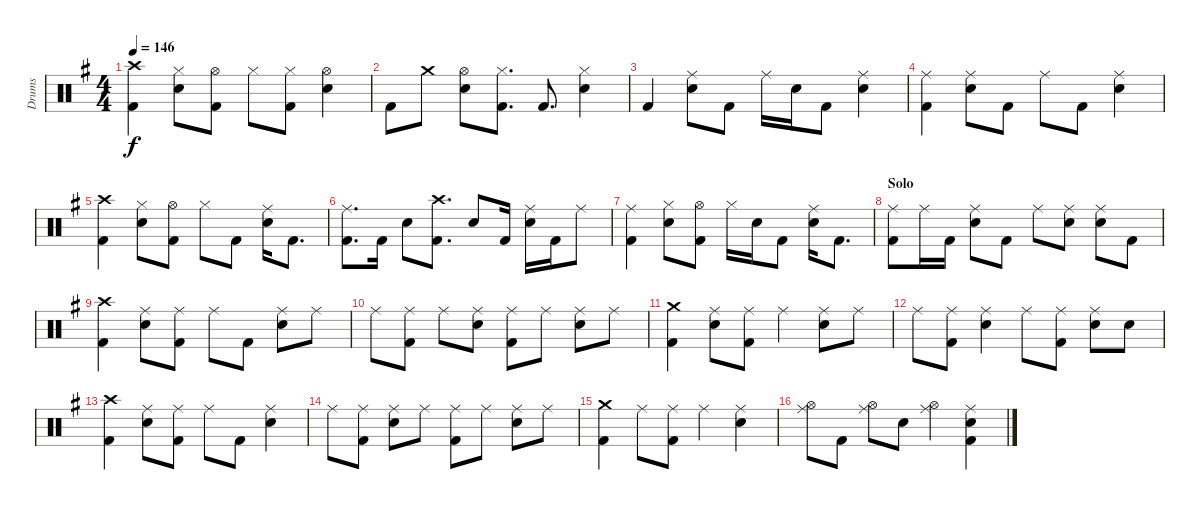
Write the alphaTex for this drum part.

\track ("Drums" "Drums") {instrument percussion}
\staff {score}
\articulation defaults
\ts (4 4)
\tempo 146
\clef neutral
\ks g
("Kick (hit) 2" "Crash high (hit)").4{dy f} ("Snare (hit) 2" "Hi-Hat (closed)").8 ("Kick (hit) 2" "Hi-Hat (open)").8 "Hi-Hat (closed)".8 ("Kick (hit) 2" "Hi-Hat (closed)").8 ("Snare (hit) 2" "Hi-Hat (open)").4 |
"Kick (hit) 2".8 "Crash medium (hit)".8 ("Snare (hit) 2" "Hi-Hat (open)").8 ("Kick (hit) 2" "Hi-Hat (closed)").8{d} "Kick (hit) 2".8{d} ("Snare (hit) 2" "Hi-Hat (closed)").4 |
"Kick (hit) 2".4 ("Snare (hit) 2" "Ride (middle)").8 "Kick (hit) 2".8 "Ride (middle)".16 "Snare (hit) 2".16 "Kick (hit) 2".8 ("Snare (hit) 2" "Ride (middle)").4 |
("Kick (hit) 2" "Ride (middle)").4 ("Snare (hit) 2" "Ride (middle)").8 "Kick (hit) 2".8 "Ride (middle)".8 "Kick (hit) 2".8 ("Snare (hit) 2" "Ride (middle)").4 |
("Kick (hit) 2" "Crash high (hit)").4 ("Snare (hit) 2" "Hi-Hat (closed)").8 ("Kick (hit) 2" "Hi-Hat (open)").8 "Hi-Hat (closed)".8 "Kick (hit) 2".8 ("Snare (hit) 2" "Ride (middle)").16 "Kick (hit) 2".8{d} |
("Kick (hit) 2" "Ride (middle)").8{d} "Kick (hit) 2".16 "Snare (hit) 2".8 ("Kick (hit) 2" "Crash high (hit)").8{d} "Snare (hit) 2".8 "Kick (hit) 2".16 ("Snare (hit) 2" "Ride (middle)").16 "Kick (hit) 2".16 "Ride (middle)".8 |
("Kick (hit) 2" "Ride (middle)").4 ("Snare (hit) 2" "Hi-Hat (closed)").8 ("Kick (hit) 2" "Hi-Hat (open)").8 "Hi-Hat (closed)".16 "Snare (hit) 2".16 "Kick (hit) 2".8 ("Snare (hit) 2" "Ride (middle)").16 "Kick (hit) 2".8{d} |
\section ("" "Solo")
("Kick (hit) 2" "Ride (middle)").8 "Ride (middle)".16 "Kick (hit) 2".16 ("Snare (hit) 2" "Ride (middle)").8 "Kick (hit) 2".8 "Ride (middle)".8 ("Snare (hit) 2" "Ride (middle)").8 ("Snare (hit) 2" "Ride (middle)").8 "Kick (hit) 2".8 |
("Kick (hit) 2" "Crash high (hit)").4 ("Snare (hit) 2" "Ride (middle)").8 ("Kick (hit) 2" "Ride (middle)").8 "Ride (middle)".8 "Kick (hit) 2".8 ("Snare (hit) 2" "Ride (middle)").8 "Ride (middle)".8 |
"Ride (middle)".8 ("Kick (hit) 2" "Ride (middle)").8 "Ride (middle)".8 ("Snare (hit) 2" "Ride (middle)").8 ("Kick (hit) 2" "Ride (middle)").8 "Ride (middle)".8 ("Snare (hit) 2" "Ride (middle)").8 "Ride (middle)".8 |
("Kick (hit) 2" "Crash medium (hit)").4 ("Snare (hit) 2" "Ride (middle)").8 ("Kick (hit) 2" "Ride (middle)").8 "Ride (middle)".4 ("Snare (hit) 2" "Ride (middle)").8 "Ride (middle)".8 |
"Ride (middle)".8 ("Kick (hit) 2" "Ride (middle)").8 ("Snare (hit) 2" "Ride (middle)").4 "Ride (middle)".8 ("Kick (hit) 2" "Ride (middle)").8 ("Snare (hit) 2" "Ride (middle)").8 "Snare (hit) 2".8 |
("Kick (hit) 2" "Crash high (hit)").4 ("Snare (hit) 2" "Ride (middle)").8 ("Kick (hit) 2" "Ride (middle)").8 "Ride (middle)".8 "Kick (hit) 2".8 ("Snare (hit) 2" "Ride (middle)").4 |
"Ride (middle)".8 ("Kick (hit) 2" "Ride (middle)").8 ("Snare (hit) 2" "Ride (middle)").8 "Ride (middle)".8 ("Kick (hit) 2" "Ride (middle)").8 "Ride (middle)".8 ("Snare (hit) 2" "Ride (middle)").8 "Ride (middle)".8 |
("Kick (hit) 2" "Crash medium (hit)").4 "Ride (middle)".8 ("Kick (hit) 2" "Ride (middle)").8 "Ride (middle)".4 ("Snare (hit) 2" "Ride (middle)").4 |
("Hi-Hat (open)" "Ride (middle)").8 "Kick (hit) 2".8 ("Hi-Hat (open)" "Ride (middle)").8 "Snare (hit) 2".8 ("Hi-Hat (open)" "Ride (middle)").4 ("Kick (hit) 2" "Snare (hit) 2" "Ride (middle)").4
